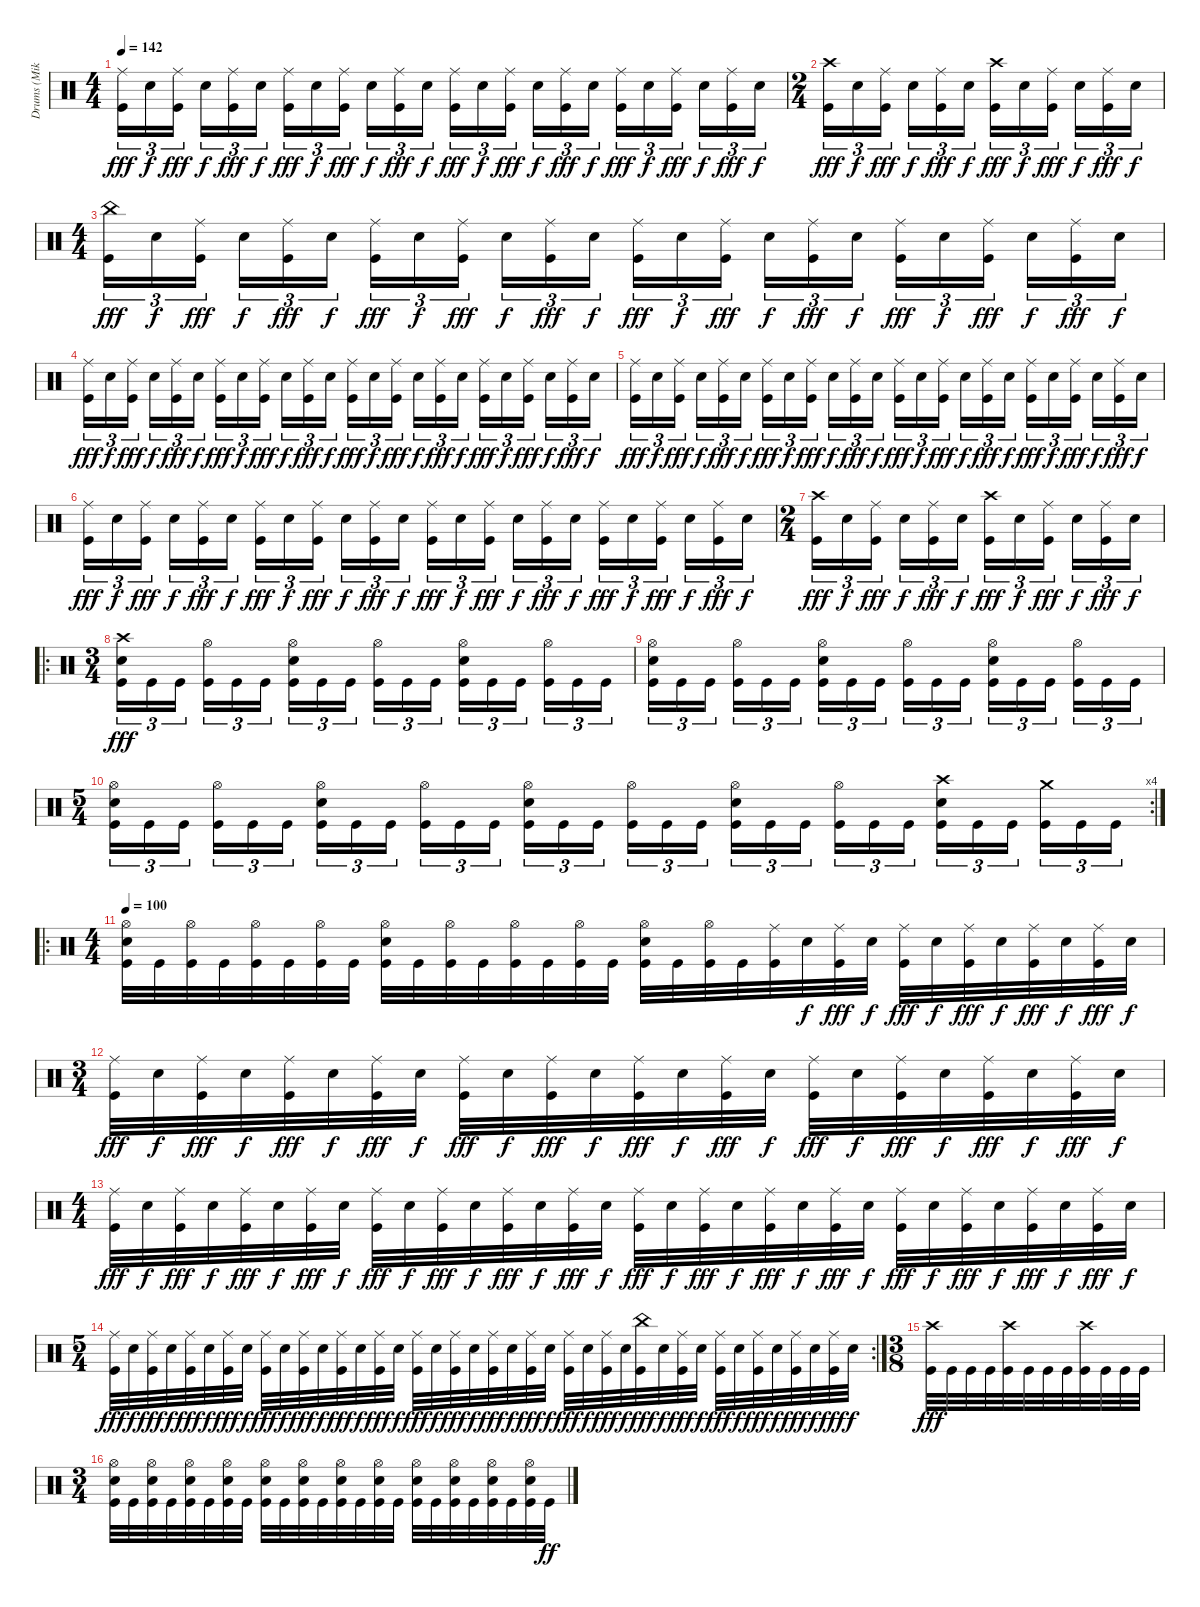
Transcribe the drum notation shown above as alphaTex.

\track ("Drums (Mike)" "Drums (Mik") {instrument percussion}
\staff {score}
\articulation defaults
\ts (4 4)
\tempo 142
\clef neutral
\ks c
("Ride (middle)" "Kick (hit)").16{tu (3 2) dy fff} "Electric Snare (hit)".16{tu (3 2) dy f} ("Ride (middle)" "Kick (hit)").16{tu (3 2) dy fff} "Electric Snare (hit)".16{tu (3 2) dy f} ("Ride (middle)" "Kick (hit)").16{tu (3 2) dy fff} "Electric Snare (hit)".16{tu (3 2) dy f} ("Ride (middle)" "Kick (hit)").16{tu (3 2) dy fff} "Electric Snare (hit)".16{tu (3 2) dy f} ("Ride (middle)" "Kick (hit)").16{tu (3 2) dy fff} "Electric Snare (hit)".16{tu (3 2) dy f} ("Ride (middle)" "Kick (hit)").16{tu (3 2) dy fff} "Electric Snare (hit)".16{tu (3 2) dy f} ("Ride (middle)" "Kick (hit)").16{tu (3 2) dy fff} "Electric Snare (hit)".16{tu (3 2) dy f} ("Ride (middle)" "Kick (hit)").16{tu (3 2) dy fff} "Electric Snare (hit)".16{tu (3 2) dy f} ("Ride (middle)" "Kick (hit)").16{tu (3 2) dy fff} "Electric Snare (hit)".16{tu (3 2) dy f} ("Ride (middle)" "Kick (hit)").16{tu (3 2) dy fff} "Electric Snare (hit)".16{tu (3 2) dy f} ("Ride (middle)" "Kick (hit)").16{tu (3 2) dy fff} "Electric Snare (hit)".16{tu (3 2) dy f} ("Ride (middle)" "Kick (hit)").16{tu (3 2) dy fff} "Electric Snare (hit)".16{tu (3 2) dy f} |
\ts (2 4)
("Crash high (hit)" "Kick (hit)").16{tu (3 2) dy fff} "Electric Snare (hit)".16{tu (3 2) dy f} ("Ride (middle)" "Kick (hit)").16{tu (3 2) dy fff} "Electric Snare (hit)".16{tu (3 2) dy f} ("Ride (middle)" "Kick (hit)").16{tu (3 2) dy fff} "Electric Snare (hit)".16{tu (3 2) dy f} ("Crash high (hit)" "Kick (hit)").16{tu (3 2) dy fff} "Electric Snare (hit)".16{tu (3 2) dy f} ("Ride (middle)" "Kick (hit)").16{tu (3 2) dy fff} "Electric Snare (hit)".16{tu (3 2) dy f} ("Ride (middle)" "Kick (hit)").16{tu (3 2) dy fff} "Electric Snare (hit)".16{tu (3 2) dy f} |
\ts (4 4)
("China (hit)" "Kick (hit)").16{tu (3 2) dy fff} "Electric Snare (hit)".16{tu (3 2) dy f} ("Ride (middle)" "Kick (hit)").16{tu (3 2) dy fff} "Electric Snare (hit)".16{tu (3 2) dy f} ("Ride (middle)" "Kick (hit)").16{tu (3 2) dy fff} "Electric Snare (hit)".16{tu (3 2) dy f} ("Ride (middle)" "Kick (hit)").16{tu (3 2) dy fff} "Electric Snare (hit)".16{tu (3 2) dy f} ("Ride (middle)" "Kick (hit)").16{tu (3 2) dy fff} "Electric Snare (hit)".16{tu (3 2) dy f} ("Ride (middle)" "Kick (hit)").16{tu (3 2) dy fff} "Electric Snare (hit)".16{tu (3 2) dy f} ("Ride (middle)" "Kick (hit)").16{tu (3 2) dy fff} "Electric Snare (hit)".16{tu (3 2) dy f} ("Ride (middle)" "Kick (hit)").16{tu (3 2) dy fff} "Electric Snare (hit)".16{tu (3 2) dy f} ("Ride (middle)" "Kick (hit)").16{tu (3 2) dy fff} "Electric Snare (hit)".16{tu (3 2) dy f} ("Ride (middle)" "Kick (hit)").16{tu (3 2) dy fff} "Electric Snare (hit)".16{tu (3 2) dy f} ("Ride (middle)" "Kick (hit)").16{tu (3 2) dy fff} "Electric Snare (hit)".16{tu (3 2) dy f} ("Ride (middle)" "Kick (hit)").16{tu (3 2) dy fff} "Electric Snare (hit)".16{tu (3 2) dy f} |
("Ride (middle)" "Kick (hit)").16{tu (3 2) dy fff} "Electric Snare (hit)".16{tu (3 2) dy f} ("Ride (middle)" "Kick (hit)").16{tu (3 2) dy fff} "Electric Snare (hit)".16{tu (3 2) dy f} ("Ride (middle)" "Kick (hit)").16{tu (3 2) dy fff} "Electric Snare (hit)".16{tu (3 2) dy f} ("Ride (middle)" "Kick (hit)").16{tu (3 2) dy fff} "Electric Snare (hit)".16{tu (3 2) dy f} ("Ride (middle)" "Kick (hit)").16{tu (3 2) dy fff} "Electric Snare (hit)".16{tu (3 2) dy f} ("Ride (middle)" "Kick (hit)").16{tu (3 2) dy fff} "Electric Snare (hit)".16{tu (3 2) dy f} ("Ride (middle)" "Kick (hit)").16{tu (3 2) dy fff} "Electric Snare (hit)".16{tu (3 2) dy f} ("Ride (middle)" "Kick (hit)").16{tu (3 2) dy fff} "Electric Snare (hit)".16{tu (3 2) dy f} ("Ride (middle)" "Kick (hit)").16{tu (3 2) dy fff} "Electric Snare (hit)".16{tu (3 2) dy f} ("Ride (middle)" "Kick (hit)").16{tu (3 2) dy fff} "Electric Snare (hit)".16{tu (3 2) dy f} ("Ride (middle)" "Kick (hit)").16{tu (3 2) dy fff} "Electric Snare (hit)".16{tu (3 2) dy f} ("Ride (middle)" "Kick (hit)").16{tu (3 2) dy fff} "Electric Snare (hit)".16{tu (3 2) dy f} |
("Ride (middle)" "Kick (hit)").16{tu (3 2) dy fff} "Electric Snare (hit)".16{tu (3 2) dy f} ("Ride (middle)" "Kick (hit)").16{tu (3 2) dy fff} "Electric Snare (hit)".16{tu (3 2) dy f} ("Ride (middle)" "Kick (hit)").16{tu (3 2) dy fff} "Electric Snare (hit)".16{tu (3 2) dy f} ("Ride (middle)" "Kick (hit)").16{tu (3 2) dy fff} "Electric Snare (hit)".16{tu (3 2) dy f} ("Ride (middle)" "Kick (hit)").16{tu (3 2) dy fff} "Electric Snare (hit)".16{tu (3 2) dy f} ("Ride (middle)" "Kick (hit)").16{tu (3 2) dy fff} "Electric Snare (hit)".16{tu (3 2) dy f} ("Ride (middle)" "Kick (hit)").16{tu (3 2) dy fff} "Electric Snare (hit)".16{tu (3 2) dy f} ("Ride (middle)" "Kick (hit)").16{tu (3 2) dy fff} "Electric Snare (hit)".16{tu (3 2) dy f} ("Ride (middle)" "Kick (hit)").16{tu (3 2) dy fff} "Electric Snare (hit)".16{tu (3 2) dy f} ("Ride (middle)" "Kick (hit)").16{tu (3 2) dy fff} "Electric Snare (hit)".16{tu (3 2) dy f} ("Ride (middle)" "Kick (hit)").16{tu (3 2) dy fff} "Electric Snare (hit)".16{tu (3 2) dy f} ("Ride (middle)" "Kick (hit)").16{tu (3 2) dy fff} "Electric Snare (hit)".16{tu (3 2) dy f} |
("Ride (middle)" "Kick (hit)").16{tu (3 2) dy fff} "Electric Snare (hit)".16{tu (3 2) dy f} ("Ride (middle)" "Kick (hit)").16{tu (3 2) dy fff} "Electric Snare (hit)".16{tu (3 2) dy f} ("Ride (middle)" "Kick (hit)").16{tu (3 2) dy fff} "Electric Snare (hit)".16{tu (3 2) dy f} ("Ride (middle)" "Kick (hit)").16{tu (3 2) dy fff} "Electric Snare (hit)".16{tu (3 2) dy f} ("Ride (middle)" "Kick (hit)").16{tu (3 2) dy fff} "Electric Snare (hit)".16{tu (3 2) dy f} ("Ride (middle)" "Kick (hit)").16{tu (3 2) dy fff} "Electric Snare (hit)".16{tu (3 2) dy f} ("Ride (middle)" "Kick (hit)").16{tu (3 2) dy fff} "Electric Snare (hit)".16{tu (3 2) dy f} ("Ride (middle)" "Kick (hit)").16{tu (3 2) dy fff} "Electric Snare (hit)".16{tu (3 2) dy f} ("Ride (middle)" "Kick (hit)").16{tu (3 2) dy fff} "Electric Snare (hit)".16{tu (3 2) dy f} ("Ride (middle)" "Kick (hit)").16{tu (3 2) dy fff} "Electric Snare (hit)".16{tu (3 2) dy f} ("Ride (middle)" "Kick (hit)").16{tu (3 2) dy fff} "Electric Snare (hit)".16{tu (3 2) dy f} ("Ride (middle)" "Kick (hit)").16{tu (3 2) dy fff} "Electric Snare (hit)".16{tu (3 2) dy f} |
\ts (2 4)
("Crash high (hit)" "Kick (hit)").16{tu (3 2) dy fff} "Electric Snare (hit)".16{tu (3 2) dy f} ("Ride (middle)" "Kick (hit)").16{tu (3 2) dy fff} "Electric Snare (hit)".16{tu (3 2) dy f} ("Ride (middle)" "Kick (hit)").16{tu (3 2) dy fff} "Electric Snare (hit)".16{tu (3 2) dy f} ("Crash high (hit)" "Kick (hit)").16{tu (3 2) dy fff} "Electric Snare (hit)".16{tu (3 2) dy f} ("Ride (middle)" "Kick (hit)").16{tu (3 2) dy fff} "Electric Snare (hit)".16{tu (3 2) dy f} ("Ride (middle)" "Kick (hit)").16{tu (3 2) dy fff} "Electric Snare (hit)".16{tu (3 2) dy f} |
\ro
\ts (3 4)
("Crash high (hit)" "Electric Snare (hit)" "Kick (hit)").16{tu (3 2) dy fff} "Kick (hit)".16{tu (3 2)} "Kick (hit)".16{tu (3 2)} ("Hi-Hat (open)" "Kick (hit)").16{tu (3 2)} "Kick (hit)".16{tu (3 2)} "Kick (hit)".16{tu (3 2)} ("Hi-Hat (open)" "Electric Snare (hit)" "Kick (hit)").16{tu (3 2)} "Kick (hit)".16{tu (3 2)} "Kick (hit)".16{tu (3 2)} ("Hi-Hat (open)" "Kick (hit)").16{tu (3 2)} "Kick (hit)".16{tu (3 2)} "Kick (hit)".16{tu (3 2)} ("Hi-Hat (open)" "Electric Snare (hit)" "Kick (hit)").16{tu (3 2)} "Kick (hit)".16{tu (3 2)} "Kick (hit)".16{tu (3 2)} ("Hi-Hat (open)" "Kick (hit)").16{tu (3 2)} "Kick (hit)".16{tu (3 2)} "Kick (hit)".16{tu (3 2)} |
("Hi-Hat (open)" "Electric Snare (hit)" "Kick (hit)").16{tu (3 2)} "Kick (hit)".16{tu (3 2)} "Kick (hit)".16{tu (3 2)} ("Hi-Hat (open)" "Kick (hit)").16{tu (3 2)} "Kick (hit)".16{tu (3 2)} "Kick (hit)".16{tu (3 2)} ("Hi-Hat (open)" "Electric Snare (hit)" "Kick (hit)").16{tu (3 2)} "Kick (hit)".16{tu (3 2)} "Kick (hit)".16{tu (3 2)} ("Hi-Hat (open)" "Kick (hit)").16{tu (3 2)} "Kick (hit)".16{tu (3 2)} "Kick (hit)".16{tu (3 2)} ("Hi-Hat (open)" "Electric Snare (hit)" "Kick (hit)").16{tu (3 2)} "Kick (hit)".16{tu (3 2)} "Kick (hit)".16{tu (3 2)} ("Hi-Hat (open)" "Kick (hit)").16{tu (3 2)} "Kick (hit)".16{tu (3 2)} "Kick (hit)".16{tu (3 2)} |
\rc 4
\ts (5 4)
("Hi-Hat (open)" "Electric Snare (hit)" "Kick (hit)").16{tu (3 2)} "Kick (hit)".16{tu (3 2)} "Kick (hit)".16{tu (3 2)} ("Hi-Hat (open)" "Kick (hit)").16{tu (3 2)} "Kick (hit)".16{tu (3 2)} "Kick (hit)".16{tu (3 2)} ("Hi-Hat (open)" "Electric Snare (hit)" "Kick (hit)").16{tu (3 2)} "Kick (hit)".16{tu (3 2)} "Kick (hit)".16{tu (3 2)} ("Hi-Hat (open)" "Kick (hit)").16{tu (3 2)} "Kick (hit)".16{tu (3 2)} "Kick (hit)".16{tu (3 2)} ("Hi-Hat (open)" "Electric Snare (hit)" "Kick (hit)").16{tu (3 2)} "Kick (hit)".16{tu (3 2)} "Kick (hit)".16{tu (3 2)} ("Hi-Hat (open)" "Kick (hit)").16{tu (3 2)} "Kick (hit)".16{tu (3 2)} "Kick (hit)".16{tu (3 2)} ("Hi-Hat (open)" "Electric Snare (hit)" "Kick (hit)").16{tu (3 2)} "Kick (hit)".16{tu (3 2)} "Kick (hit)".16{tu (3 2)} ("Hi-Hat (open)" "Kick (hit)").16{tu (3 2)} "Kick (hit)".16{tu (3 2)} "Kick (hit)".16{tu (3 2)} ("Crash high (hit)" "Electric Snare (hit)" "Kick (hit)").16{tu (3 2)} "Kick (hit)".16{tu (3 2)} "Kick (hit)".16{tu (3 2)} ("Crash medium (hit)" "Kick (hit)").16{tu (3 2)} "Kick (hit)".16{tu (3 2)} "Kick (hit)".16{tu (3 2)} |
\ro
\ts (4 4)
\tempo 100
("Hi-Hat (open)" "Electric Snare (hit)" "Kick (hit)").32 "Kick (hit)".32 ("Hi-Hat (open)" "Kick (hit)").32 "Kick (hit)".32 ("Hi-Hat (open)" "Kick (hit)").32 "Kick (hit)".32 ("Hi-Hat (open)" "Kick (hit)").32 "Kick (hit)".32 ("Hi-Hat (open)" "Electric Snare (hit)" "Kick (hit)").32 "Kick (hit)".32 ("Hi-Hat (open)" "Kick (hit)").32 "Kick (hit)".32 ("Hi-Hat (open)" "Kick (hit)").32 "Kick (hit)".32 ("Hi-Hat (open)" "Kick (hit)").32 "Kick (hit)".32 ("Hi-Hat (open)" "Electric Snare (hit)" "Kick (hit)").32 "Kick (hit)".32 ("Hi-Hat (open)" "Kick (hit)").32 "Kick (hit)".32 ("Ride (middle)" "Kick (hit)").32 "Electric Snare (hit)".32{dy f} ("Ride (middle)" "Kick (hit)").32{dy fff} "Electric Snare (hit)".32{dy f} ("Ride (middle)" "Kick (hit)").32{dy fff} "Electric Snare (hit)".32{dy f} ("Ride (middle)" "Kick (hit)").32{dy fff} "Electric Snare (hit)".32{dy f} ("Ride (middle)" "Kick (hit)").32{dy fff} "Electric Snare (hit)".32{dy f} ("Ride (middle)" "Kick (hit)").32{dy fff} "Electric Snare (hit)".32{dy f} |
\ts (3 4)
("Ride (middle)" "Kick (hit)").32{dy fff} "Electric Snare (hit)".32{dy f} ("Ride (middle)" "Kick (hit)").32{dy fff} "Electric Snare (hit)".32{dy f} ("Ride (middle)" "Kick (hit)").32{dy fff} "Electric Snare (hit)".32{dy f} ("Ride (middle)" "Kick (hit)").32{dy fff} "Electric Snare (hit)".32{dy f} ("Ride (middle)" "Kick (hit)").32{dy fff} "Electric Snare (hit)".32{dy f} ("Ride (middle)" "Kick (hit)").32{dy fff} "Electric Snare (hit)".32{dy f} ("Ride (middle)" "Kick (hit)").32{dy fff} "Electric Snare (hit)".32{dy f} ("Ride (middle)" "Kick (hit)").32{dy fff} "Electric Snare (hit)".32{dy f} ("Ride (middle)" "Kick (hit)").32{dy fff} "Electric Snare (hit)".32{dy f} ("Ride (middle)" "Kick (hit)").32{dy fff} "Electric Snare (hit)".32{dy f} ("Ride (middle)" "Kick (hit)").32{dy fff} "Electric Snare (hit)".32{dy f} ("Ride (middle)" "Kick (hit)").32{dy fff} "Electric Snare (hit)".32{dy f} |
\ts (4 4)
("Ride (middle)" "Kick (hit)").32{dy fff} "Electric Snare (hit)".32{dy f} ("Ride (middle)" "Kick (hit)").32{dy fff} "Electric Snare (hit)".32{dy f} ("Ride (middle)" "Kick (hit)").32{dy fff} "Electric Snare (hit)".32{dy f} ("Ride (middle)" "Kick (hit)").32{dy fff} "Electric Snare (hit)".32{dy f} ("Ride (middle)" "Kick (hit)").32{dy fff} "Electric Snare (hit)".32{dy f} ("Ride (middle)" "Kick (hit)").32{dy fff} "Electric Snare (hit)".32{dy f} ("Ride (middle)" "Kick (hit)").32{dy fff} "Electric Snare (hit)".32{dy f} ("Ride (middle)" "Kick (hit)").32{dy fff} "Electric Snare (hit)".32{dy f} ("Ride (middle)" "Kick (hit)").32{dy fff} "Electric Snare (hit)".32{dy f} ("Ride (middle)" "Kick (hit)").32{dy fff} "Electric Snare (hit)".32{dy f} ("Ride (middle)" "Kick (hit)").32{dy fff} "Electric Snare (hit)".32{dy f} ("Ride (middle)" "Kick (hit)").32{dy fff} "Electric Snare (hit)".32{dy f} ("Ride (middle)" "Kick (hit)").32{dy fff} "Electric Snare (hit)".32{dy f} ("Ride (middle)" "Kick (hit)").32{dy fff} "Electric Snare (hit)".32{dy f} ("Ride (middle)" "Kick (hit)").32{dy fff} "Electric Snare (hit)".32{dy f} ("Ride (middle)" "Kick (hit)").32{dy fff} "Electric Snare (hit)".32{dy f} |
\rc 2
\ts (5 4)
("Ride (middle)" "Kick (hit)").32{dy fff} "Electric Snare (hit)".32{dy f} ("Ride (middle)" "Kick (hit)").32{dy fff} "Electric Snare (hit)".32{dy f} ("Ride (middle)" "Kick (hit)").32{dy fff} "Electric Snare (hit)".32{dy f} ("Ride (middle)" "Kick (hit)").32{dy fff} "Electric Snare (hit)".32{dy f} ("Ride (middle)" "Kick (hit)").32{dy fff} "Electric Snare (hit)".32{dy f} ("Ride (middle)" "Kick (hit)").32{dy fff} "Electric Snare (hit)".32{dy f} ("Ride (middle)" "Kick (hit)").32{dy fff} "Electric Snare (hit)".32{dy f} ("Ride (middle)" "Kick (hit)").32{dy fff} "Electric Snare (hit)".32{dy f} ("Ride (middle)" "Kick (hit)").32{dy fff} "Electric Snare (hit)".32{dy f} ("Ride (middle)" "Kick (hit)").32{dy fff} "Electric Snare (hit)".32{dy f} ("Ride (middle)" "Kick (hit)").32{dy fff} "Electric Snare (hit)".32{dy f} ("Ride (middle)" "Kick (hit)").32{dy fff} "Electric Snare (hit)".32{dy f} ("Ride (middle)" "Kick (hit)").32{dy fff} "Electric Snare (hit)".32{dy f} ("Ride (middle)" "Kick (hit)").32{dy fff} "Electric Snare (hit)".32{dy f} ("China (hit)" "Kick (hit)").32{dy fff} "Electric Snare (hit)".32{dy f} ("Ride (middle)" "Kick (hit)").32{dy fff} "Electric Snare (hit)".32{dy f} ("Ride (middle)" "Kick (hit)").32{dy fff} "Electric Snare (hit)".32{dy f} ("Ride (middle)" "Kick (hit)").32{dy fff} "Electric Snare (hit)".32{dy f} ("Ride (middle)" "Kick (hit)").32{dy fff} "Electric Snare (hit)".32{dy f} ("Ride (middle)" "Kick (hit)").32{dy fff} "Electric Snare (hit)".32{dy f} |
\ts (3 8)
("Crash high (hit)" "Kick (hit)").32{dy fff} "Kick (hit)".32 "Kick (hit)".32 "Kick (hit)".32 ("Crash high (hit)" "Kick (hit)").32 "Kick (hit)".32 "Kick (hit)".32 "Kick (hit)".32 ("Crash high (hit)" "Kick (hit)").32 "Kick (hit)".32 "Kick (hit)".32 "Kick (hit)".32 |
\ts (3 4)
("Hi-Hat (open)" "Electric Snare (hit)" "Kick (hit)").32 "Kick (hit)".32 ("Hi-Hat (open)" "Electric Snare (hit)" "Kick (hit)").32 "Kick (hit)".32 ("Hi-Hat (open)" "Electric Snare (hit)" "Kick (hit)").32 "Kick (hit)".32 ("Hi-Hat (open)" "Electric Snare (hit)" "Kick (hit)").32 "Kick (hit)".32 ("Hi-Hat (open)" "Electric Snare (hit)" "Kick (hit)").32 "Kick (hit)".32 ("Hi-Hat (open)" "Electric Snare (hit)" "Kick (hit)").32 "Kick (hit)".32 ("Hi-Hat (open)" "Electric Snare (hit)" "Kick (hit)").32 "Kick (hit)".32 ("Hi-Hat (open)" "Electric Snare (hit)" "Kick (hit)").32 "Kick (hit)".32 ("Hi-Hat (open)" "Electric Snare (hit)" "Kick (hit)").32 "Kick (hit)".32 ("Hi-Hat (open)" "Electric Snare (hit)" "Kick (hit)").32 "Kick (hit)".32 ("Hi-Hat (open)" "Electric Snare (hit)" "Kick (hit)").32 "Kick (hit)".32 ("Hi-Hat (open)" "Electric Snare (hit)" "Kick (hit)").32 "Kick (hit)".32{dy ff}
